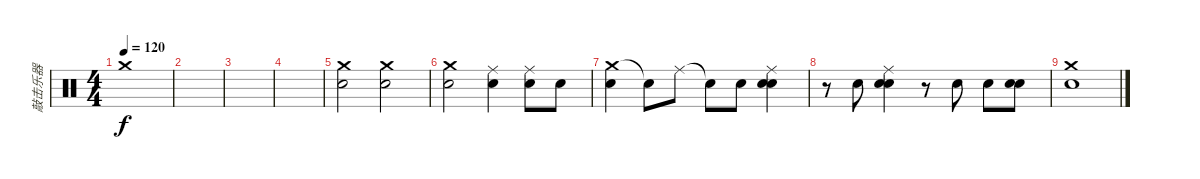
\track ("敲击乐器" "敲击乐器") {instrument percussion}
\staff {score}
\articulation defaults
\ts (4 4)
\tempo 120
\clef neutral
\ks c "Crash medium (hit)".1{dy f}
|
|
|
|
("Crash medium (hit)" "Snare (hit) 2").2 ("Crash medium (hit)" "Snare (hit) 2").2 |
("Crash medium (hit)" "Snare (hit) 2").2 ("Ride (middle)" "Snare (hit) 2").4 ("Ride (middle)" "Electric Snare (hit)").8 "Electric Snare (hit)".8 |
("Crash medium (hit)" "Snare (hit) 2").4 "Snare (hit)"{t}.8 "Ride (middle)".8 "Snare (hit)"{t}.8 "Snare (hit) 2".8 ("Ride (middle)" "Electric Snare (hit)" "Snare (hit) 2").4 |
r.8 "Snare (hit) 2".8 ("Ride (middle)" "Electric Snare (hit)" "Snare (hit) 2").4 r.8 "Electric Snare (hit)".8 "Snare (hit) 2".8 ("Electric Snare (hit)" "Snare (hit) 2").8 |
("Crash medium (hit)" "Snare (hit) 2").1
